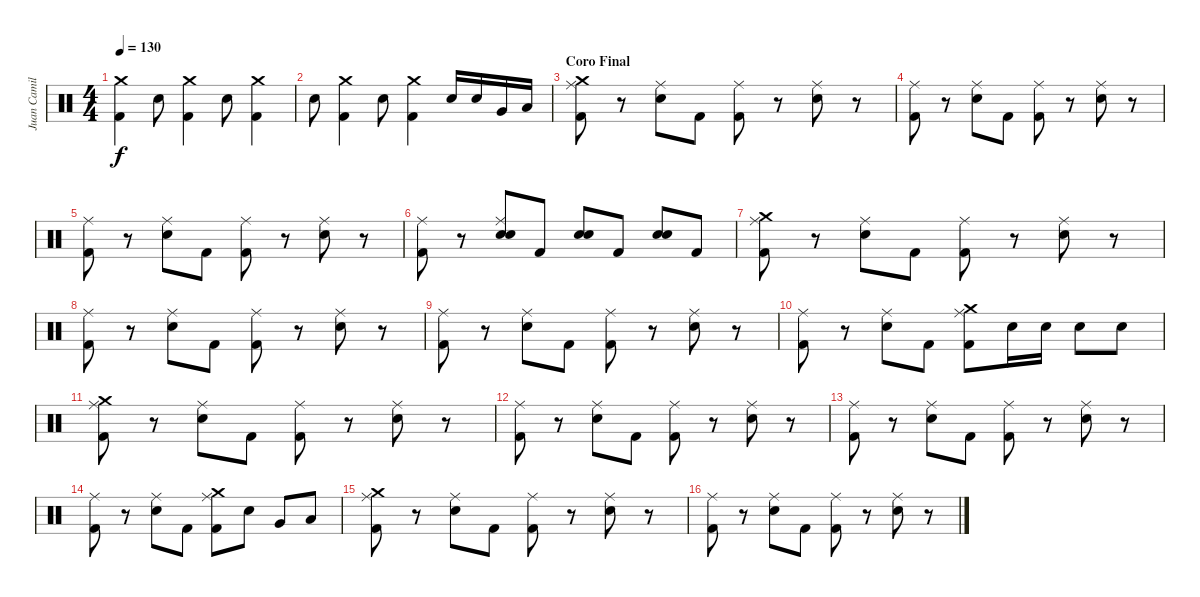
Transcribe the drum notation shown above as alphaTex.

\track ("Juan Camilo" "Juan Camil") {instrument percussion}
\staff {score}
\articulation defaults
\ts (4 4)
\tempo 130
\clef neutral
\ks c
("Crash medium (hit)" "Kick (hit) 2").4{dy f} "Electric Snare (hit)".8 ("Crash medium (hit)" "Kick (hit) 2").4 "Electric Snare (hit)".8 ("Crash medium (hit)" "Kick (hit) 2").4 |
"Electric Snare (hit)".8 ("Crash medium (hit)" "Kick (hit) 2").4 "Electric Snare (hit)".8 ("Crash medium (hit)" "Kick (hit) 2").4 "Electric Snare (hit)".16 "Electric Snare (hit)".16 "Very Low Tom (hit)".16 "Low Floor Tom (hit)".16 |
\section ("" "Coro Final")
("Crash medium (hit)" "Ride (middle)" "Kick (hit) 2").8 r.8 ("Ride (middle)" "Electric Snare (hit)").8 "Kick (hit) 2".8 ("Ride (middle)" "Kick (hit) 2").8 r.8 ("Ride (middle)" "Electric Snare (hit)").8 r.8 |
("Ride (middle)" "Kick (hit) 2").8 r.8 ("Ride (middle)" "Electric Snare (hit)").8 "Kick (hit) 2".8 ("Ride (middle)" "Kick (hit) 2").8 r.8 ("Ride (middle)" "Electric Snare (hit)").8 r.8 |
("Ride (middle)" "Kick (hit) 2").8 r.8 ("Ride (middle)" "Electric Snare (hit)").8 "Kick (hit) 2".8 ("Ride (middle)" "Kick (hit) 2").8 r.8 ("Ride (middle)" "Electric Snare (hit)").8 r.8 |
("Ride (middle)" "Kick (hit) 2").8 r.8 ("Ride (middle)" "Electric Snare (hit)" "Snare (hit) 2").8 "Kick (hit) 2".8 ("Electric Snare (hit)" "Snare (hit) 2").8 "Kick (hit) 2".8 ("Electric Snare (hit)" "Snare (hit) 2").8 "Kick (hit) 2".8 |
("Crash medium (hit)" "Ride (middle)" "Kick (hit) 2").8 r.8 ("Ride (middle)" "Electric Snare (hit)").8 "Kick (hit) 2".8 ("Ride (middle)" "Kick (hit) 2").8 r.8 ("Ride (middle)" "Electric Snare (hit)").8 r.8 |
("Ride (middle)" "Kick (hit) 2").8 r.8 ("Ride (middle)" "Electric Snare (hit)").8 "Kick (hit) 2".8 ("Ride (middle)" "Kick (hit) 2").8 r.8 ("Ride (middle)" "Electric Snare (hit)").8 r.8 |
("Ride (middle)" "Kick (hit) 2").8 r.8 ("Ride (middle)" "Electric Snare (hit)").8 "Kick (hit) 2".8 ("Ride (middle)" "Kick (hit) 2").8 r.8 ("Ride (middle)" "Electric Snare (hit)").8 r.8 |
("Ride (middle)" "Kick (hit) 2").8 r.8 ("Ride (middle)" "Electric Snare (hit)").8 "Kick (hit) 2".8 ("Crash medium (hit)" "Ride (middle)" "Kick (hit) 2").8 "Electric Snare (hit)".16 "Electric Snare (hit)".16 "Electric Snare (hit)".8 "Electric Snare (hit)".8 |
("Crash medium (hit)" "Ride (middle)" "Kick (hit) 2").8 r.8 ("Ride (middle)" "Electric Snare (hit)").8 "Kick (hit) 2".8 ("Ride (middle)" "Kick (hit) 2").8 r.8 ("Ride (middle)" "Electric Snare (hit)").8 r.8 |
("Ride (middle)" "Kick (hit) 2").8 r.8 ("Ride (middle)" "Electric Snare (hit)").8 "Kick (hit) 2".8 ("Ride (middle)" "Kick (hit) 2").8 r.8 ("Ride (middle)" "Electric Snare (hit)").8 r.8 |
("Ride (middle)" "Kick (hit) 2").8 r.8 ("Ride (middle)" "Electric Snare (hit)").8 "Kick (hit) 2".8 ("Ride (middle)" "Kick (hit) 2").8 r.8 ("Ride (middle)" "Electric Snare (hit)").8 r.8 |
("Ride (middle)" "Kick (hit) 2").8 r.8 ("Ride (middle)" "Electric Snare (hit)").8 "Kick (hit) 2".8 ("Crash medium (hit)" "Ride (middle)" "Kick (hit) 2").8 "Electric Snare (hit)".8 "Very Low Tom (hit)".8 "Low Floor Tom (hit)".8 |
("Crash medium (hit)" "Ride (middle)" "Kick (hit) 2").8 r.8 ("Ride (middle)" "Electric Snare (hit)").8 "Kick (hit) 2".8 ("Ride (middle)" "Kick (hit) 2").8 r.8 ("Ride (middle)" "Electric Snare (hit)").8 r.8 |
("Ride (middle)" "Kick (hit) 2").8 r.8 ("Ride (middle)" "Electric Snare (hit)").8 "Kick (hit) 2".8 ("Ride (middle)" "Kick (hit) 2").8 r.8 ("Ride (middle)" "Electric Snare (hit)").8 r.8
